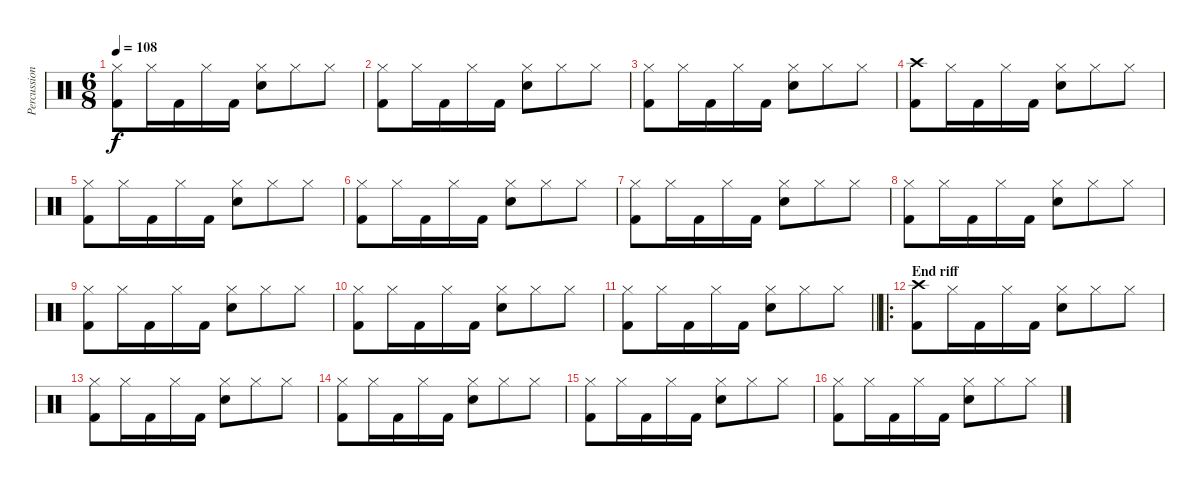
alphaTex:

\track ("Percussions" "Percussion") {instrument percussion}
\staff {score}
\articulation defaults
\ts (6 8)
\tempo 108
\clef neutral
\ks c
("Hi-Hat (closed)" "Kick (hit) 2").8{dy f} "Hi-Hat (closed)".16 "Kick (hit) 2".16 "Hi-Hat (closed)".16 "Kick (hit) 2".16 ("Hi-Hat (closed)" "Electric Snare (hit)").8 "Hi-Hat (closed)".8 "Hi-Hat (closed)".8 |
("Hi-Hat (closed)" "Kick (hit) 2").8 "Hi-Hat (closed)".16 "Kick (hit) 2".16 "Hi-Hat (closed)".16 "Kick (hit) 2".16 ("Hi-Hat (closed)" "Electric Snare (hit)").8 "Hi-Hat (closed)".8 "Hi-Hat (closed)".8 |
("Hi-Hat (closed)" "Kick (hit) 2").8 "Hi-Hat (closed)".16 "Kick (hit) 2".16 "Hi-Hat (closed)".16 "Kick (hit) 2".16 ("Hi-Hat (closed)" "Electric Snare (hit)").8 "Hi-Hat (closed)".8 "Hi-Hat (closed)".8 |
("Crash high (hit)" "Kick (hit) 2").8 "Hi-Hat (closed)".16 "Kick (hit) 2".16 "Hi-Hat (closed)".16 "Kick (hit) 2".16 ("Hi-Hat (closed)" "Electric Snare (hit)").8 "Hi-Hat (closed)".8 "Hi-Hat (closed)".8 |
("Hi-Hat (closed)" "Kick (hit) 2").8 "Hi-Hat (closed)".16 "Kick (hit) 2".16 "Hi-Hat (closed)".16 "Kick (hit) 2".16 ("Hi-Hat (closed)" "Electric Snare (hit)").8 "Hi-Hat (closed)".8 "Hi-Hat (closed)".8 |
("Hi-Hat (closed)" "Kick (hit) 2").8 "Hi-Hat (closed)".16 "Kick (hit) 2".16 "Hi-Hat (closed)".16 "Kick (hit) 2".16 ("Hi-Hat (closed)" "Electric Snare (hit)").8 "Hi-Hat (closed)".8 "Hi-Hat (closed)".8 |
("Hi-Hat (closed)" "Kick (hit) 2").8 "Hi-Hat (closed)".16 "Kick (hit) 2".16 "Hi-Hat (closed)".16 "Kick (hit) 2".16 ("Hi-Hat (closed)" "Electric Snare (hit)").8 "Hi-Hat (closed)".8 "Hi-Hat (closed)".8 |
("Hi-Hat (closed)" "Kick (hit) 2").8 "Hi-Hat (closed)".16 "Kick (hit) 2".16 "Hi-Hat (closed)".16 "Kick (hit) 2".16 ("Hi-Hat (closed)" "Electric Snare (hit)").8 "Hi-Hat (closed)".8 "Hi-Hat (closed)".8 |
("Hi-Hat (closed)" "Kick (hit) 2").8 "Hi-Hat (closed)".16 "Kick (hit) 2".16 "Hi-Hat (closed)".16 "Kick (hit) 2".16 ("Hi-Hat (closed)" "Electric Snare (hit)").8 "Hi-Hat (closed)".8 "Hi-Hat (closed)".8 |
("Hi-Hat (closed)" "Kick (hit) 2").8 "Hi-Hat (closed)".16 "Kick (hit) 2".16 "Hi-Hat (closed)".16 "Kick (hit) 2".16 ("Hi-Hat (closed)" "Electric Snare (hit)").8 "Hi-Hat (closed)".8 "Hi-Hat (closed)".8 |
\barLineRight lightlight
("Hi-Hat (closed)" "Kick (hit) 2").8 "Hi-Hat (closed)".16 "Kick (hit) 2".16 "Hi-Hat (closed)".16 "Kick (hit) 2".16 ("Hi-Hat (closed)" "Electric Snare (hit)").8 "Hi-Hat (closed)".8 "Hi-Hat (closed)".8 |
\ro
\section ("" "End riff")
("Crash high (hit)" "Kick (hit) 2").8 "Hi-Hat (closed)".16 "Kick (hit) 2".16 "Hi-Hat (closed)".16 "Kick (hit) 2".16 ("Hi-Hat (closed)" "Electric Snare (hit)").8 "Hi-Hat (closed)".8 "Hi-Hat (closed)".8 |
("Hi-Hat (closed)" "Kick (hit) 2").8 "Hi-Hat (closed)".16 "Kick (hit) 2".16 "Hi-Hat (closed)".16 "Kick (hit) 2".16 ("Hi-Hat (closed)" "Electric Snare (hit)").8 "Hi-Hat (closed)".8 "Hi-Hat (closed)".8 |
("Hi-Hat (closed)" "Kick (hit) 2").8 "Hi-Hat (closed)".16 "Kick (hit) 2".16 "Hi-Hat (closed)".16 "Kick (hit) 2".16 ("Hi-Hat (closed)" "Electric Snare (hit)").8 "Hi-Hat (closed)".8 "Hi-Hat (closed)".8 |
("Hi-Hat (closed)" "Kick (hit) 2").8 "Hi-Hat (closed)".16 "Kick (hit) 2".16 "Hi-Hat (closed)".16 "Kick (hit) 2".16 ("Hi-Hat (closed)" "Electric Snare (hit)").8 "Hi-Hat (closed)".8 "Hi-Hat (closed)".8 |
("Hi-Hat (closed)" "Kick (hit) 2").8 "Hi-Hat (closed)".16 "Kick (hit) 2".16 "Hi-Hat (closed)".16 "Kick (hit) 2".16 ("Hi-Hat (closed)" "Electric Snare (hit)").8 "Hi-Hat (closed)".8 "Hi-Hat (closed)".8
